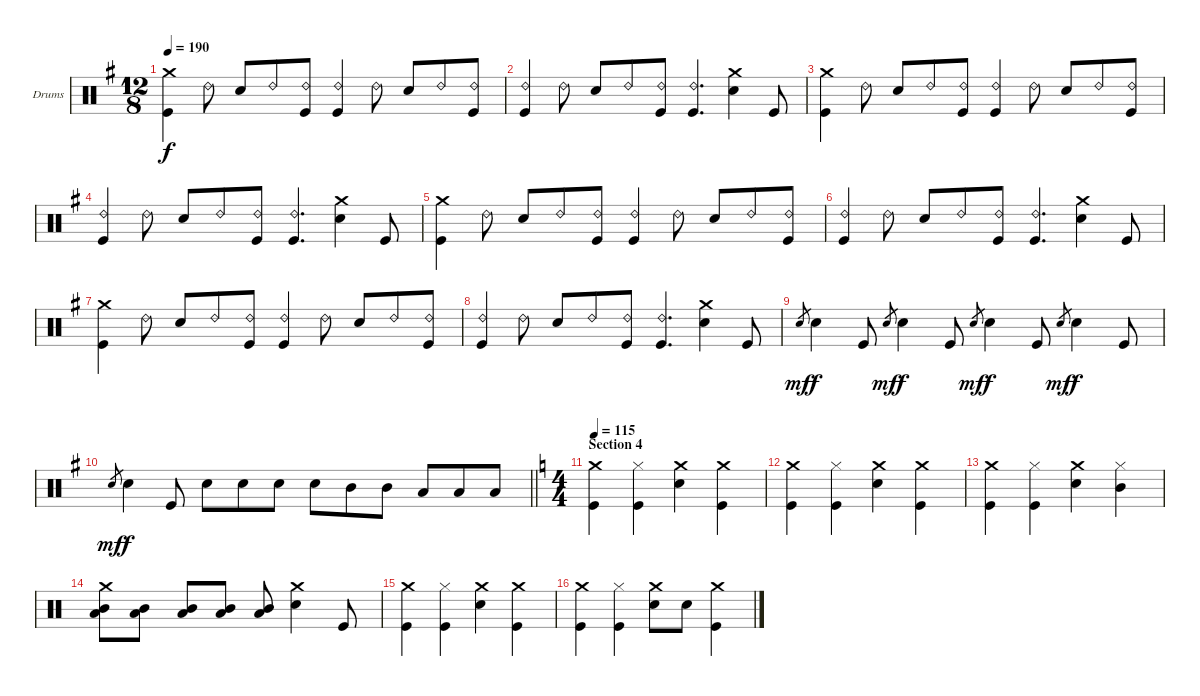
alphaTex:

\bracketExtendMode groupsimilarinstruments
\firstSystemTrackNameOrientation horizontal
\otherSystemsTrackNameOrientation horizontal
\track ("Drumkit" "Drums") {instrument percussion}
\staff {score}
\articulation defaults
\ts (12 8)
\tempo 190
\clef neutral
\ks eminor
("Crash medium (hit)" "Kick (hit)").4{dy f} "Ride (bell) 2".8 "Snare (hit) 2".8 "Ride (bell) 2".8 ("Ride (bell) 2" "Kick (hit)").8 ("Ride (bell) 2" "Kick (hit)").4 "Ride (bell) 2".8 "Snare (hit) 2".8 "Ride (bell) 2".8 ("Ride (bell) 2" "Kick (hit)").8 |
("Ride (bell) 2" "Kick (hit)").4 "Ride (bell) 2".8 "Snare (hit) 2".8 "Ride (bell) 2".8 ("Ride (bell) 2" "Kick (hit)").8 ("Ride (bell) 2" "Kick (hit)").4{d} ("Crash medium (hit)" "Snare (hit) 2").4 "Kick (hit)".8 |
("Crash medium (hit)" "Kick (hit)").4 "Ride (bell) 2".8 "Snare (hit) 2".8 "Ride (bell) 2".8 ("Ride (bell) 2" "Kick (hit)").8 ("Ride (bell) 2" "Kick (hit)").4 "Ride (bell) 2".8 "Snare (hit) 2".8 "Ride (bell) 2".8 ("Ride (bell) 2" "Kick (hit)").8 |
("Ride (bell) 2" "Kick (hit)").4 "Ride (bell) 2".8 "Snare (hit) 2".8 "Ride (bell) 2".8 ("Ride (bell) 2" "Kick (hit)").8 ("Ride (bell) 2" "Kick (hit)").4{d} ("Crash medium (hit)" "Snare (hit) 2").4 "Kick (hit)".8 |
("Crash medium (hit)" "Kick (hit)").4 "Ride (bell) 2".8 "Snare (hit) 2".8 "Ride (bell) 2".8 ("Ride (bell) 2" "Kick (hit)").8 ("Ride (bell) 2" "Kick (hit)").4 "Ride (bell) 2".8 "Snare (hit) 2".8 "Ride (bell) 2".8 ("Ride (bell) 2" "Kick (hit)").8 |
("Ride (bell) 2" "Kick (hit)").4 "Ride (bell) 2".8 "Snare (hit) 2".8 "Ride (bell) 2".8 ("Ride (bell) 2" "Kick (hit)").8 ("Ride (bell) 2" "Kick (hit)").4{d} ("Crash medium (hit)" "Snare (hit) 2").4 "Kick (hit)".8 |
("Crash medium (hit)" "Kick (hit)").4 "Ride (bell) 2".8 "Snare (hit) 2".8 "Ride (bell) 2".8 ("Ride (bell) 2" "Kick (hit)").8 ("Ride (bell) 2" "Kick (hit)").4 "Ride (bell) 2".8 "Snare (hit) 2".8 "Ride (bell) 2".8 ("Ride (bell) 2" "Kick (hit)").8 |
("Ride (bell) 2" "Kick (hit)").4 "Ride (bell) 2".8 "Snare (hit) 2".8 "Ride (bell) 2".8 ("Ride (bell) 2" "Kick (hit)").8 ("Ride (bell) 2" "Kick (hit)").4{d} ("Crash medium (hit)" "Snare (hit) 2").4 "Kick (hit)".8 |
"Snare (hit) 2".8{gr dy mf} "Snare (hit) 2".4{dy f} "Kick (hit)".8 "Snare (hit) 2".8{gr dy mf} "Snare (hit) 2".4{dy f} "Kick (hit)".8 "Snare (hit) 2".8{gr dy mf} "Snare (hit) 2".4{dy f} "Kick (hit)".8 "Snare (hit) 2".8{gr dy mf} "Snare (hit) 2".4{dy f} "Kick (hit)".8 |
\barLineRight lightlight "Snare (hit) 2".8{gr dy mf} "Snare (hit) 2".4{dy f} "Kick (hit)".8 "Snare (hit) 2".8 "Snare (hit) 2".8 "Snare (hit) 2".8 "Snare (hit) 2".8 "Mid Tom (hit)".8 "Mid Tom (hit)".8 "Low Tom (hit)".8 "Low Tom (hit)".8 "Low Tom (hit)".8
|
\ts (4 4)
\beaming (8 2 2 2 2)
\section ("" "Section 4")
\tempo 115
\ks aminor
("Crash medium (hit)" "Kick (hit)").4 ("Hi-Hat (closed)" "Kick (hit)").4 ("Crash medium (hit)" "Snare (hit) 2").4 ("Crash medium (hit)" "Kick (hit)").4 |
("Crash medium (hit)" "Kick (hit)").4 ("Hi-Hat (closed)" "Kick (hit)").4 ("Crash medium (hit)" "Snare (hit) 2").4 ("Crash medium (hit)" "Kick (hit)").4 |
("Crash medium (hit)" "Kick (hit)").4 ("Hi-Hat (closed)" "Kick (hit)").4 ("Crash medium (hit)" "Snare (hit) 2").4 ("Hi-Hat (closed)" "Mid Tom (hit)").4 |
("Crash medium (hit)" "Low Tom (hit)" "Mid Tom (hit)").8 ("Low Tom (hit)" "Mid Tom (hit)").8 ("Low Tom (hit)" "Mid Tom (hit)").8 ("Low Tom (hit)" "Mid Tom (hit)").8 ("Low Tom (hit)" "Mid Tom (hit)").8 ("Crash medium (hit)" "Snare (hit) 2").4 "Kick (hit)".8 |
("Crash medium (hit)" "Kick (hit)").4 ("Hi-Hat (closed)" "Kick (hit)").4 ("Crash medium (hit)" "Snare (hit) 2").4 ("Crash medium (hit)" "Kick (hit)").4 |
("Crash medium (hit)" "Kick (hit)").4 ("Hi-Hat (closed)" "Kick (hit)").4 ("Crash medium (hit)" "Snare (hit) 2").8 "Snare (hit) 2".8 ("Crash medium (hit)" "Kick (hit)").4
